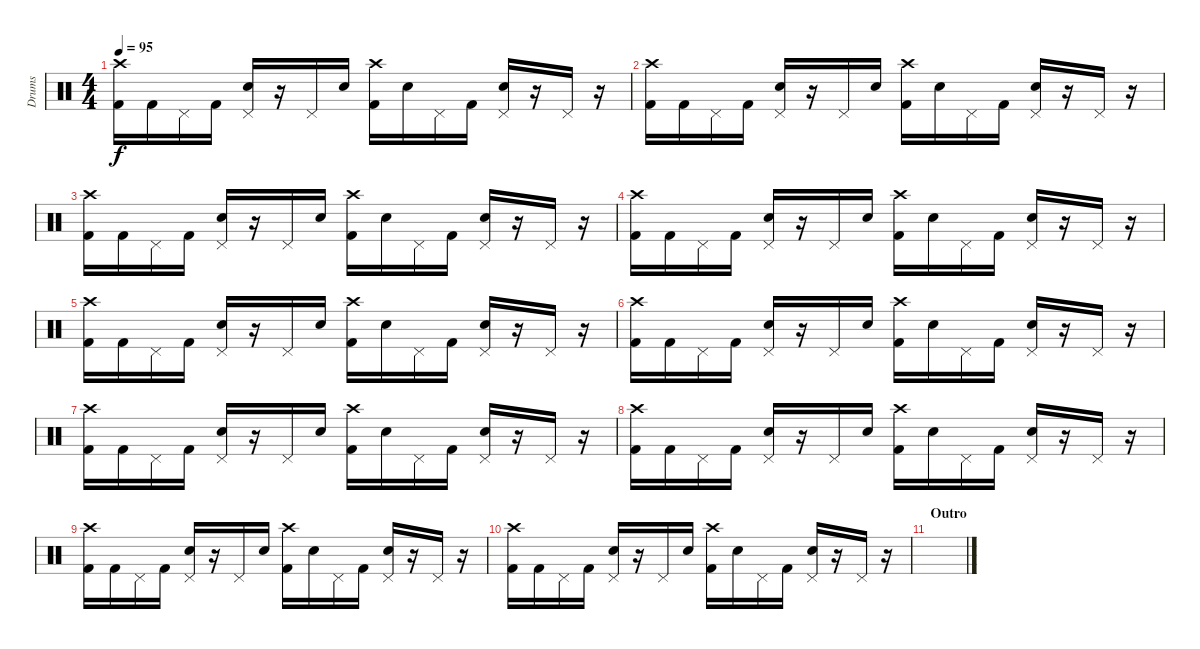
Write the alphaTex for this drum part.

\track ("Drums" "Drums") {instrument percussion}
\staff {score}
\articulation defaults
\ts (4 4)
\tempo 95
\clef neutral
\ks c
("Crash high (hit)" "Kick (hit) 2").16{dy f} "Kick (hit) 2".16 "Pedal Hi-Hat (hit)".16 "Kick (hit) 2".16 ("Pedal Hi-Hat (hit)" "Electric Snare (hit)").16 r.16 "Pedal Hi-Hat (hit)".16 "Electric Snare (hit)".16 ("Crash high (hit)" "Kick (hit) 2").16 "Electric Snare (hit)".16 "Pedal Hi-Hat (hit)".16 "Kick (hit) 2".16 ("Pedal Hi-Hat (hit)" "Electric Snare (hit)").16 r.16 "Pedal Hi-Hat (hit)".16 r.16 |
("Crash high (hit)" "Kick (hit) 2").16 "Kick (hit) 2".16 "Pedal Hi-Hat (hit)".16 "Kick (hit) 2".16 ("Pedal Hi-Hat (hit)" "Electric Snare (hit)").16 r.16 "Pedal Hi-Hat (hit)".16 "Electric Snare (hit)".16 ("Crash high (hit)" "Kick (hit) 2").16 "Electric Snare (hit)".16 "Pedal Hi-Hat (hit)".16 "Kick (hit) 2".16 ("Pedal Hi-Hat (hit)" "Electric Snare (hit)").16 r.16 "Pedal Hi-Hat (hit)".16 r.16 |
("Crash high (hit)" "Kick (hit) 2").16 "Kick (hit) 2".16 "Pedal Hi-Hat (hit)".16 "Kick (hit) 2".16 ("Pedal Hi-Hat (hit)" "Electric Snare (hit)").16 r.16 "Pedal Hi-Hat (hit)".16 "Electric Snare (hit)".16 ("Crash high (hit)" "Kick (hit) 2").16 "Electric Snare (hit)".16 "Pedal Hi-Hat (hit)".16 "Kick (hit) 2".16 ("Pedal Hi-Hat (hit)" "Electric Snare (hit)").16 r.16 "Pedal Hi-Hat (hit)".16 r.16 |
("Crash high (hit)" "Kick (hit) 2").16 "Kick (hit) 2".16 "Pedal Hi-Hat (hit)".16 "Kick (hit) 2".16 ("Pedal Hi-Hat (hit)" "Electric Snare (hit)").16 r.16 "Pedal Hi-Hat (hit)".16 "Electric Snare (hit)".16 ("Crash high (hit)" "Kick (hit) 2").16 "Electric Snare (hit)".16 "Pedal Hi-Hat (hit)".16 "Kick (hit) 2".16 ("Pedal Hi-Hat (hit)" "Electric Snare (hit)").16 r.16 "Pedal Hi-Hat (hit)".16 r.16 |
("Crash high (hit)" "Kick (hit) 2").16 "Kick (hit) 2".16 "Pedal Hi-Hat (hit)".16 "Kick (hit) 2".16 ("Pedal Hi-Hat (hit)" "Electric Snare (hit)").16 r.16 "Pedal Hi-Hat (hit)".16 "Electric Snare (hit)".16 ("Crash high (hit)" "Kick (hit) 2").16 "Electric Snare (hit)".16 "Pedal Hi-Hat (hit)".16 "Kick (hit) 2".16 ("Pedal Hi-Hat (hit)" "Electric Snare (hit)").16 r.16 "Pedal Hi-Hat (hit)".16 r.16 |
("Crash high (hit)" "Kick (hit) 2").16 "Kick (hit) 2".16 "Pedal Hi-Hat (hit)".16 "Kick (hit) 2".16 ("Pedal Hi-Hat (hit)" "Electric Snare (hit)").16 r.16 "Pedal Hi-Hat (hit)".16 "Electric Snare (hit)".16 ("Crash high (hit)" "Kick (hit) 2").16 "Electric Snare (hit)".16 "Pedal Hi-Hat (hit)".16 "Kick (hit) 2".16 ("Pedal Hi-Hat (hit)" "Electric Snare (hit)").16 r.16 "Pedal Hi-Hat (hit)".16 r.16 |
("Crash high (hit)" "Kick (hit) 2").16 "Kick (hit) 2".16 "Pedal Hi-Hat (hit)".16 "Kick (hit) 2".16 ("Pedal Hi-Hat (hit)" "Electric Snare (hit)").16 r.16 "Pedal Hi-Hat (hit)".16 "Electric Snare (hit)".16 ("Crash high (hit)" "Kick (hit) 2").16 "Electric Snare (hit)".16 "Pedal Hi-Hat (hit)".16 "Kick (hit) 2".16 ("Pedal Hi-Hat (hit)" "Electric Snare (hit)").16 r.16 "Pedal Hi-Hat (hit)".16 r.16 |
("Crash high (hit)" "Kick (hit) 2").16 "Kick (hit) 2".16 "Pedal Hi-Hat (hit)".16 "Kick (hit) 2".16 ("Pedal Hi-Hat (hit)" "Electric Snare (hit)").16 r.16 "Pedal Hi-Hat (hit)".16 "Electric Snare (hit)".16 ("Crash high (hit)" "Kick (hit) 2").16 "Electric Snare (hit)".16 "Pedal Hi-Hat (hit)".16 "Kick (hit) 2".16 ("Pedal Hi-Hat (hit)" "Electric Snare (hit)").16 r.16 "Pedal Hi-Hat (hit)".16 r.16 |
("Crash high (hit)" "Kick (hit) 2").16 "Kick (hit) 2".16 "Pedal Hi-Hat (hit)".16 "Kick (hit) 2".16 ("Pedal Hi-Hat (hit)" "Electric Snare (hit)").16 r.16 "Pedal Hi-Hat (hit)".16 "Electric Snare (hit)".16 ("Crash high (hit)" "Kick (hit) 2").16 "Electric Snare (hit)".16 "Pedal Hi-Hat (hit)".16 "Kick (hit) 2".16 ("Pedal Hi-Hat (hit)" "Electric Snare (hit)").16 r.16 "Pedal Hi-Hat (hit)".16 r.16 |
("Crash high (hit)" "Kick (hit) 2").16 "Kick (hit) 2".16 "Pedal Hi-Hat (hit)".16 "Kick (hit) 2".16 ("Pedal Hi-Hat (hit)" "Electric Snare (hit)").16 r.16 "Pedal Hi-Hat (hit)".16 "Electric Snare (hit)".16 ("Crash high (hit)" "Kick (hit) 2").16 "Electric Snare (hit)".16 "Pedal Hi-Hat (hit)".16 "Kick (hit) 2".16 ("Pedal Hi-Hat (hit)" "Electric Snare (hit)").16 r.16 "Pedal Hi-Hat (hit)".16 r.16 |
\section ("" "Outro")
